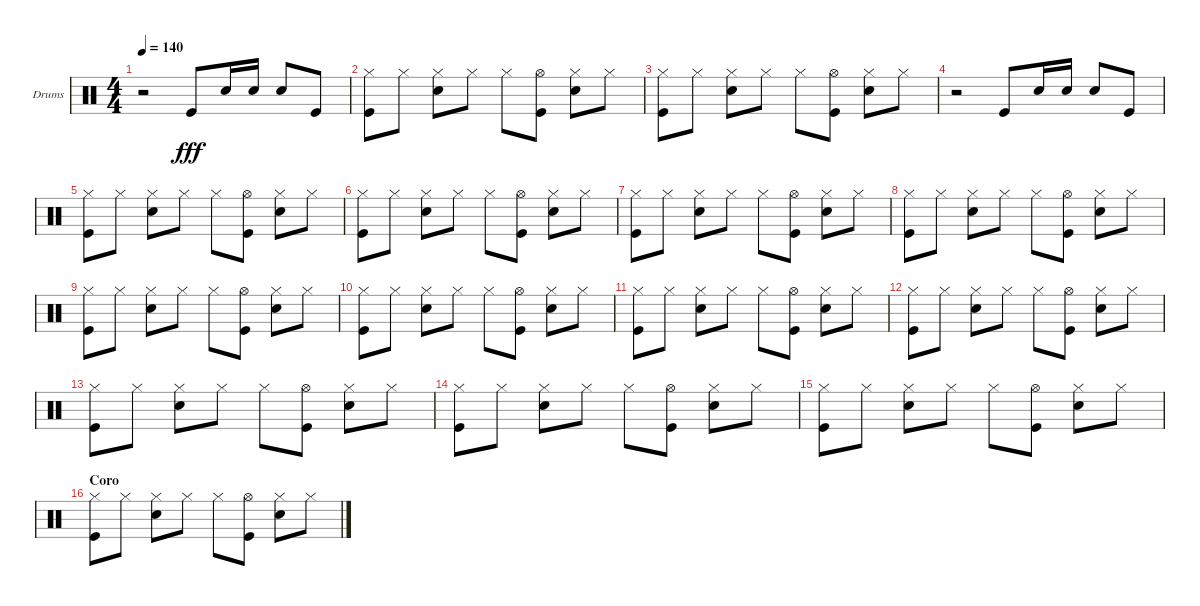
\bracketExtendMode groupsimilarinstruments
\firstSystemTrackNameOrientation horizontal
\otherSystemsTrackNameOrientation horizontal
\track ("Drumkit" "Drums") {instrument percussion}
\staff {score}
\articulation defaults
\ts (4 4)
\tempo 140
\clef neutral
\ks c
r.2{dy fff} "Kick (hit)".8 "Snare (hit) 2".16 "Snare (hit) 2".16 "Snare (hit) 2".8 "Kick (hit)".8 |
("Hi-Hat (closed)" "Kick (hit)").8 "Hi-Hat (closed)".8 ("Hi-Hat (closed)" "Snare (hit) 2").8 "Hi-Hat (closed)".8 "Hi-Hat (closed)".8 ("Hi-Hat (open)" "Kick (hit)").8 ("Hi-Hat (closed)" "Snare (hit) 2").8 "Hi-Hat (closed)".8 |
("Hi-Hat (closed)" "Kick (hit)").8 "Hi-Hat (closed)".8 ("Hi-Hat (closed)" "Snare (hit) 2").8 "Hi-Hat (closed)".8 "Hi-Hat (closed)".8 ("Hi-Hat (open)" "Kick (hit)").8 ("Hi-Hat (closed)" "Snare (hit) 2").8 "Hi-Hat (closed)".8 |
r.2 "Kick (hit)".8 "Snare (hit) 2".16 "Snare (hit) 2".16 "Snare (hit) 2".8 "Kick (hit)".8 |
("Hi-Hat (closed)" "Kick (hit)").8 "Hi-Hat (closed)".8 ("Hi-Hat (closed)" "Snare (hit) 2").8 "Hi-Hat (closed)".8 "Hi-Hat (closed)".8 ("Hi-Hat (open)" "Kick (hit)").8 ("Hi-Hat (closed)" "Snare (hit) 2").8 "Hi-Hat (closed)".8 |
("Hi-Hat (closed)" "Kick (hit)").8 "Hi-Hat (closed)".8 ("Hi-Hat (closed)" "Snare (hit) 2").8 "Hi-Hat (closed)".8 "Hi-Hat (closed)".8 ("Hi-Hat (open)" "Kick (hit)").8 ("Hi-Hat (closed)" "Snare (hit) 2").8 "Hi-Hat (closed)".8 |
("Hi-Hat (closed)" "Kick (hit)").8 "Hi-Hat (closed)".8 ("Hi-Hat (closed)" "Snare (hit) 2").8 "Hi-Hat (closed)".8 "Hi-Hat (closed)".8 ("Hi-Hat (open)" "Kick (hit)").8 ("Hi-Hat (closed)" "Snare (hit) 2").8 "Hi-Hat (closed)".8 |
("Hi-Hat (closed)" "Kick (hit)").8 "Hi-Hat (closed)".8 ("Hi-Hat (closed)" "Snare (hit) 2").8 "Hi-Hat (closed)".8 "Hi-Hat (closed)".8 ("Hi-Hat (open)" "Kick (hit)").8 ("Hi-Hat (closed)" "Snare (hit) 2").8 "Hi-Hat (closed)".8 |
("Hi-Hat (closed)" "Kick (hit)").8 "Hi-Hat (closed)".8 ("Hi-Hat (closed)" "Snare (hit) 2").8 "Hi-Hat (closed)".8 "Hi-Hat (closed)".8 ("Hi-Hat (open)" "Kick (hit)").8 ("Hi-Hat (closed)" "Snare (hit) 2").8 "Hi-Hat (closed)".8 |
("Hi-Hat (closed)" "Kick (hit)").8 "Hi-Hat (closed)".8 ("Hi-Hat (closed)" "Snare (hit) 2").8 "Hi-Hat (closed)".8 "Hi-Hat (closed)".8 ("Hi-Hat (open)" "Kick (hit)").8 ("Hi-Hat (closed)" "Snare (hit) 2").8 "Hi-Hat (closed)".8 |
("Hi-Hat (closed)" "Kick (hit)").8 "Hi-Hat (closed)".8 ("Hi-Hat (closed)" "Snare (hit) 2").8 "Hi-Hat (closed)".8 "Hi-Hat (closed)".8 ("Hi-Hat (open)" "Kick (hit)").8 ("Hi-Hat (closed)" "Snare (hit) 2").8 "Hi-Hat (closed)".8 |
("Hi-Hat (closed)" "Kick (hit)").8 "Hi-Hat (closed)".8 ("Hi-Hat (closed)" "Snare (hit) 2").8 "Hi-Hat (closed)".8 "Hi-Hat (closed)".8 ("Hi-Hat (open)" "Kick (hit)").8 ("Hi-Hat (closed)" "Snare (hit) 2").8 "Hi-Hat (closed)".8 |
("Hi-Hat (closed)" "Kick (hit)").8 "Hi-Hat (closed)".8 ("Hi-Hat (closed)" "Snare (hit) 2").8 "Hi-Hat (closed)".8 "Hi-Hat (closed)".8 ("Hi-Hat (open)" "Kick (hit)").8 ("Hi-Hat (closed)" "Snare (hit) 2").8 "Hi-Hat (closed)".8 |
("Hi-Hat (closed)" "Kick (hit)").8 "Hi-Hat (closed)".8 ("Hi-Hat (closed)" "Snare (hit) 2").8 "Hi-Hat (closed)".8 "Hi-Hat (closed)".8 ("Hi-Hat (open)" "Kick (hit)").8 ("Hi-Hat (closed)" "Snare (hit) 2").8 "Hi-Hat (closed)".8 |
("Hi-Hat (closed)" "Kick (hit)").8 "Hi-Hat (closed)".8 ("Hi-Hat (closed)" "Snare (hit) 2").8 "Hi-Hat (closed)".8 "Hi-Hat (closed)".8 ("Hi-Hat (open)" "Kick (hit)").8 ("Hi-Hat (closed)" "Snare (hit) 2").8 "Hi-Hat (closed)".8 |
\section ("" "Coro")
("Hi-Hat (closed)" "Kick (hit)").8 "Hi-Hat (closed)".8 ("Hi-Hat (closed)" "Snare (hit) 2").8 "Hi-Hat (closed)".8 "Hi-Hat (closed)".8 ("Hi-Hat (open)" "Kick (hit)").8 ("Hi-Hat (closed)" "Snare (hit) 2").8 "Hi-Hat (closed)".8
